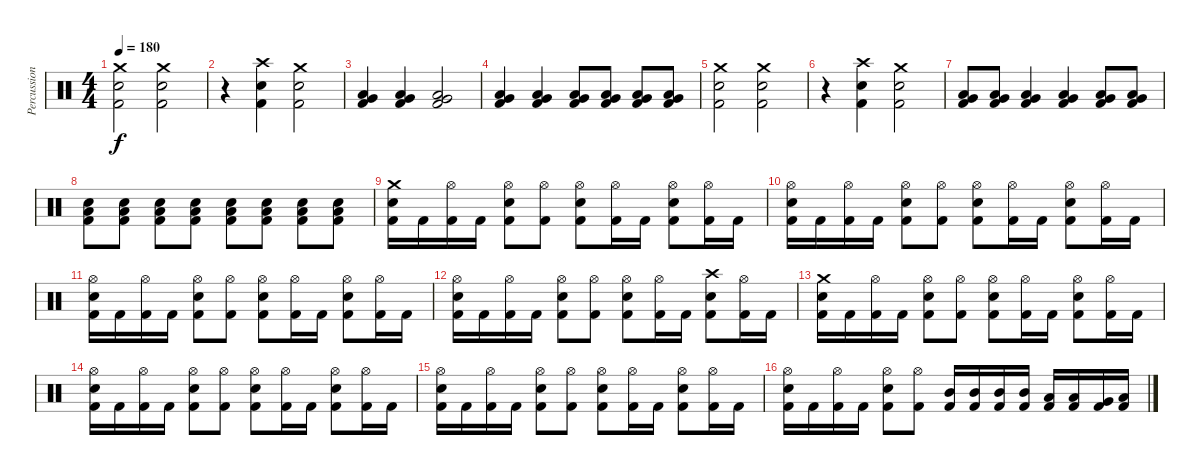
\track ("Percussion" "Percussion") {instrument percussion}
\staff {score}
\articulation defaults
\ts (4 4)
\tempo 180
\clef neutral
\ks c
("Crash medium (hit)" "Electric Snare (hit)" "Kick (hit) 2").2{dy f} ("Crash medium (hit)" "Electric Snare (hit)" "Kick (hit) 2").2 |
r.4 ("Crash high (hit)" "Electric Snare (hit)" "Kick (hit) 2").4 ("Crash medium (hit)" "Electric Snare (hit)" "Kick (hit) 2").2 |
("Low Floor Tom (hit)" "Very Low Tom (hit)" "Kick (hit) 2").4 ("Low Floor Tom (hit)" "Very Low Tom (hit)" "Kick (hit) 2").4 ("Low Floor Tom (hit)" "Very Low Tom (hit)" "Kick (hit) 2").2 |
("Low Floor Tom (hit)" "Very Low Tom (hit)" "Kick (hit) 2").4 ("Low Floor Tom (hit)" "Very Low Tom (hit)" "Kick (hit) 2").4 ("Low Floor Tom (hit)" "Very Low Tom (hit)" "Kick (hit) 2").8 ("Low Floor Tom (hit)" "Very Low Tom (hit)" "Kick (hit) 2").8 ("Low Floor Tom (hit)" "Very Low Tom (hit)" "Kick (hit) 2").8 ("Low Floor Tom (hit)" "Very Low Tom (hit)" "Kick (hit) 2").8 |
("Crash medium (hit)" "Electric Snare (hit)" "Kick (hit) 2").2 ("Crash medium (hit)" "Electric Snare (hit)" "Kick (hit) 2").2 |
r.4 ("Crash high (hit)" "Electric Snare (hit)" "Kick (hit) 2").4 ("Crash medium (hit)" "Electric Snare (hit)" "Kick (hit) 2").2 |
("Low Floor Tom (hit)" "Very Low Tom (hit)" "Kick (hit) 2").8 ("Low Floor Tom (hit)" "Very Low Tom (hit)" "Kick (hit) 2").8 ("Low Floor Tom (hit)" "Very Low Tom (hit)" "Kick (hit) 2").4 ("Low Floor Tom (hit)" "Very Low Tom (hit)" "Kick (hit) 2").4 ("Low Floor Tom (hit)" "Very Low Tom (hit)" "Kick (hit) 2").8 ("Low Floor Tom (hit)" "Very Low Tom (hit)" "Kick (hit) 2").8 |
("Low Floor Tom (hit)" "Electric Snare (hit)" "Kick (hit) 2").8 ("Low Floor Tom (hit)" "Electric Snare (hit)" "Kick (hit) 2").8 ("Low Floor Tom (hit)" "Electric Snare (hit)" "Kick (hit) 2").8 ("Low Floor Tom (hit)" "Electric Snare (hit)" "Kick (hit) 2").8 ("Low Floor Tom (hit)" "Electric Snare (hit)" "Kick (hit) 2").8 ("Low Floor Tom (hit)" "Electric Snare (hit)" "Kick (hit) 2").8 ("Low Floor Tom (hit)" "Electric Snare (hit)" "Kick (hit) 2").8 ("Low Floor Tom (hit)" "Electric Snare (hit)" "Kick (hit) 2").8 |
("Crash medium (hit)" "Electric Snare (hit)" "Kick (hit) 2").16 "Kick (hit) 2".16 ("Hi-Hat (open)" "Kick (hit) 2").16 "Kick (hit) 2".16 ("Hi-Hat (open)" "Electric Snare (hit)" "Kick (hit) 2").8 ("Hi-Hat (open)" "Kick (hit) 2").8 ("Hi-Hat (open)" "Electric Snare (hit)" "Kick (hit) 2").8 ("Hi-Hat (open)" "Kick (hit) 2").16 "Kick (hit) 2".16 ("Hi-Hat (open)" "Electric Snare (hit)" "Kick (hit) 2").8 ("Hi-Hat (open)" "Kick (hit) 2").16 "Kick (hit) 2".16 |
("Hi-Hat (open)" "Electric Snare (hit)" "Kick (hit) 2").16 "Kick (hit) 2".16 ("Hi-Hat (open)" "Kick (hit) 2").16 "Kick (hit) 2".16 ("Hi-Hat (open)" "Electric Snare (hit)" "Kick (hit) 2").8 ("Hi-Hat (open)" "Kick (hit) 2").8 ("Hi-Hat (open)" "Electric Snare (hit)" "Kick (hit) 2").8 ("Hi-Hat (open)" "Kick (hit) 2").16 "Kick (hit) 2".16 ("Hi-Hat (open)" "Electric Snare (hit)" "Kick (hit) 2").8 ("Hi-Hat (open)" "Kick (hit) 2").16 "Kick (hit) 2".16 |
("Hi-Hat (open)" "Electric Snare (hit)" "Kick (hit) 2").16 "Kick (hit) 2".16 ("Hi-Hat (open)" "Kick (hit) 2").16 "Kick (hit) 2".16 ("Hi-Hat (open)" "Electric Snare (hit)" "Kick (hit) 2").8 ("Hi-Hat (open)" "Kick (hit) 2").8 ("Hi-Hat (open)" "Electric Snare (hit)" "Kick (hit) 2").8 ("Hi-Hat (open)" "Kick (hit) 2").16 "Kick (hit) 2".16 ("Hi-Hat (open)" "Electric Snare (hit)" "Kick (hit) 2").8 ("Hi-Hat (open)" "Kick (hit) 2").16 "Kick (hit) 2".16 |
("Hi-Hat (open)" "Electric Snare (hit)" "Kick (hit) 2").16 "Kick (hit) 2".16 ("Hi-Hat (open)" "Kick (hit) 2").16 "Kick (hit) 2".16 ("Hi-Hat (open)" "Electric Snare (hit)" "Kick (hit) 2").8 ("Hi-Hat (open)" "Kick (hit) 2").8 ("Hi-Hat (open)" "Electric Snare (hit)" "Kick (hit) 2").8 ("Hi-Hat (open)" "Kick (hit) 2").16 "Kick (hit) 2".16 ("Crash high (hit)" "Electric Snare (hit)" "Kick (hit) 2").8 ("Hi-Hat (open)" "Kick (hit) 2").16 "Kick (hit) 2".16 |
("Crash medium (hit)" "Electric Snare (hit)" "Kick (hit) 2").16 "Kick (hit) 2".16 ("Hi-Hat (open)" "Kick (hit) 2").16 "Kick (hit) 2".16 ("Hi-Hat (open)" "Electric Snare (hit)" "Kick (hit) 2").8 ("Hi-Hat (open)" "Kick (hit) 2").8 ("Hi-Hat (open)" "Electric Snare (hit)" "Kick (hit) 2").8 ("Hi-Hat (open)" "Kick (hit) 2").16 "Kick (hit) 2".16 ("Hi-Hat (open)" "Electric Snare (hit)" "Kick (hit) 2").8 ("Hi-Hat (open)" "Kick (hit) 2").16 "Kick (hit) 2".16 |
("Hi-Hat (open)" "Electric Snare (hit)" "Kick (hit) 2").16 "Kick (hit) 2".16 ("Hi-Hat (open)" "Kick (hit) 2").16 "Kick (hit) 2".16 ("Hi-Hat (open)" "Electric Snare (hit)" "Kick (hit) 2").8 ("Hi-Hat (open)" "Kick (hit) 2").8 ("Hi-Hat (open)" "Electric Snare (hit)" "Kick (hit) 2").8 ("Hi-Hat (open)" "Kick (hit) 2").16 "Kick (hit) 2".16 ("Hi-Hat (open)" "Electric Snare (hit)" "Kick (hit) 2").8 ("Hi-Hat (open)" "Kick (hit) 2").16 "Kick (hit) 2".16 |
("Hi-Hat (open)" "Electric Snare (hit)" "Kick (hit) 2").16 "Kick (hit) 2".16 ("Hi-Hat (open)" "Kick (hit) 2").16 "Kick (hit) 2".16 ("Hi-Hat (open)" "Electric Snare (hit)" "Kick (hit) 2").8 ("Hi-Hat (open)" "Kick (hit) 2").8 ("Hi-Hat (open)" "Electric Snare (hit)" "Kick (hit) 2").8 ("Hi-Hat (open)" "Kick (hit) 2").16 "Kick (hit) 2".16 ("Hi-Hat (open)" "Electric Snare (hit)" "Kick (hit) 2").8 ("Hi-Hat (open)" "Kick (hit) 2").16 "Kick (hit) 2".16 |
("Hi-Hat (open)" "Electric Snare (hit)" "Kick (hit) 2").16 "Kick (hit) 2".16 ("Hi-Hat (open)" "Kick (hit) 2").16 "Kick (hit) 2".16 ("Hi-Hat (open)" "Electric Snare (hit)" "Kick (hit) 2").8 ("Hi-Hat (open)" "Kick (hit) 2").8 ("Mid Tom (hit)" "Kick (hit) 2").16 ("Mid Tom (hit)" "Kick (hit) 2").16 ("Mid Tom (hit)" "Kick (hit) 2").16 ("Mid Tom (hit)" "Kick (hit) 2").16 ("Low Tom (hit)" "Kick (hit) 2").16 ("Low Tom (hit)" "Kick (hit) 2").16 ("Very Low Tom (hit)" "Kick (hit) 2").16 ("Low Floor Tom (hit)" "Kick (hit) 2").16
